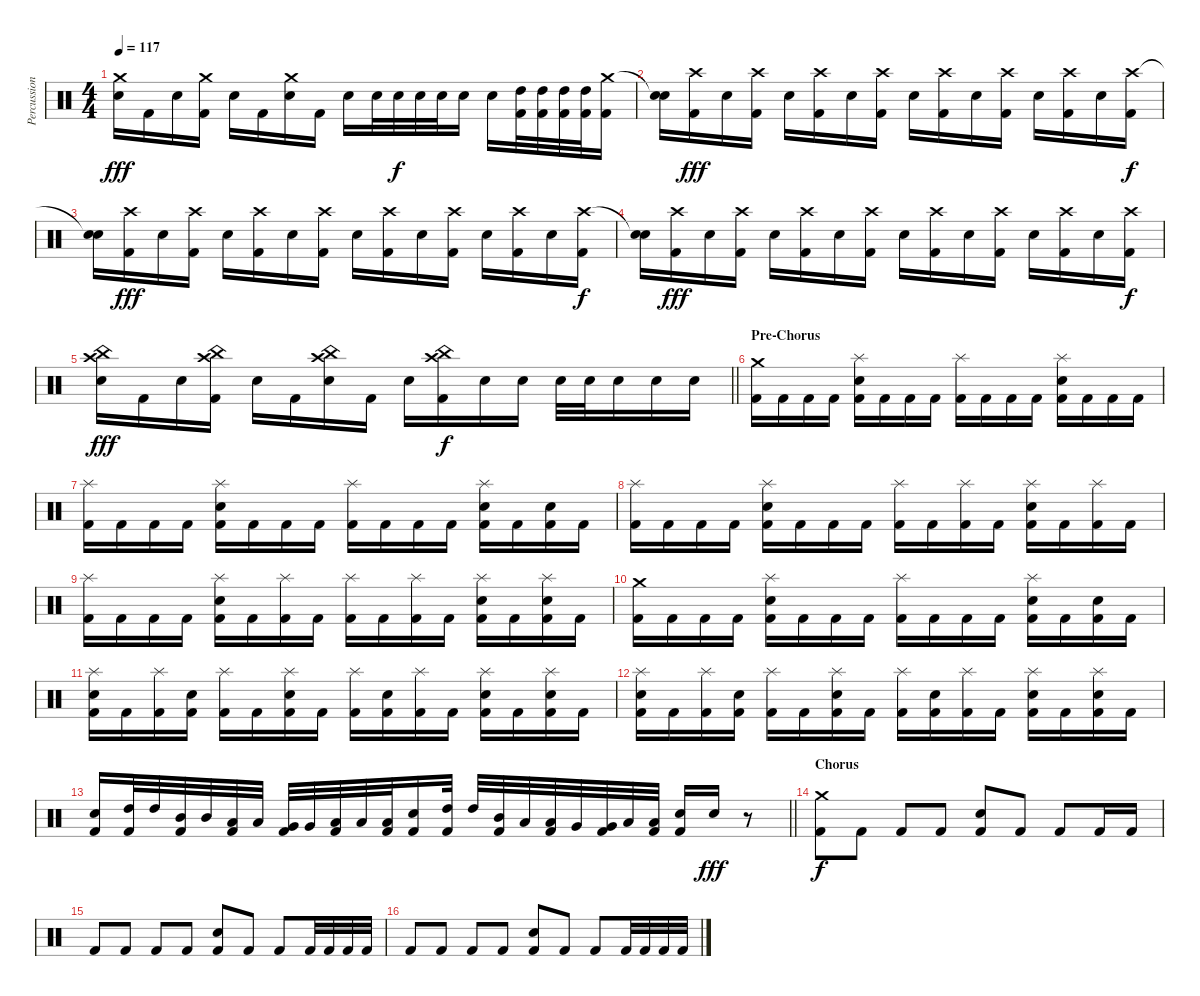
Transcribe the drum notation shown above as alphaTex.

\track ("Percussioni" "Percussion") {instrument percussion}
\staff {score}
\articulation defaults
\ts (4 4)
\tempo 117
\clef neutral
\ks c
("Crash medium (hit)" "Electric Snare (hit)").16{dy fff} "Kick (hit) 2".16 "Electric Snare (hit)".16 ("Crash medium (hit)" "Kick (hit) 2").16 "Electric Snare (hit)".16 "Kick (hit) 2".16 ("Crash medium (hit)" "Electric Snare (hit)").16 "Kick (hit) 2".16 "Electric Snare (hit)".16 "Electric Snare (hit)".32 "Electric Snare (hit)".32{dy f} "Electric Snare (hit)".32 "Electric Snare (hit)".32 "Electric Snare (hit)".16 "Electric Snare (hit)".16 ("High Tom (hit)" "Kick (hit) 2").32 ("High Tom (hit)" "Kick (hit) 2").32 ("High Tom (hit)" "Kick (hit) 2").32 ("High Tom (hit)" "Kick (hit) 2").32 ("Crash medium (hit)" "Kick (hit) 2").16 |
("Snare (hit)"{t} "Electric Snare (hit)").16 ("Crash high (hit)" "Kick (hit) 2").16{dy fff} "Electric Snare (hit)".16 ("Crash high (hit)" "Kick (hit) 2").16 "Electric Snare (hit)".16 ("Crash high (hit)" "Kick (hit) 2").16 "Electric Snare (hit)".16 ("Crash high (hit)" "Kick (hit) 2").16 "Electric Snare (hit)".16 ("Crash high (hit)" "Kick (hit) 2").16 "Electric Snare (hit)".16 ("Crash high (hit)" "Kick (hit) 2").16 "Electric Snare (hit)".16 ("Crash high (hit)" "Kick (hit) 2").16 "Electric Snare (hit)".16 ("Crash high (hit)" "Kick (hit) 2").16{dy f} |
("Snare (hit)"{t} "Electric Snare (hit)").16 ("Crash high (hit)" "Kick (hit) 2").16{dy fff} "Electric Snare (hit)".16 ("Crash high (hit)" "Kick (hit) 2").16 "Electric Snare (hit)".16 ("Crash high (hit)" "Kick (hit) 2").16 "Electric Snare (hit)".16 ("Crash high (hit)" "Kick (hit) 2").16 "Electric Snare (hit)".16 ("Crash high (hit)" "Kick (hit) 2").16 "Electric Snare (hit)".16 ("Crash high (hit)" "Kick (hit) 2").16 "Electric Snare (hit)".16 ("Crash high (hit)" "Kick (hit) 2").16 "Electric Snare (hit)".16 ("Crash high (hit)" "Kick (hit) 2").16{dy f} |
("Snare (hit)"{t} "Electric Snare (hit)").16 ("Crash high (hit)" "Kick (hit) 2").16{dy fff} "Electric Snare (hit)".16 ("Crash high (hit)" "Kick (hit) 2").16 "Electric Snare (hit)".16 ("Crash high (hit)" "Kick (hit) 2").16 "Electric Snare (hit)".16 ("Crash high (hit)" "Kick (hit) 2").16 "Electric Snare (hit)".16 ("Crash high (hit)" "Kick (hit) 2").16 "Electric Snare (hit)".16 ("Crash high (hit)" "Kick (hit) 2").16 "Electric Snare (hit)".16 ("Crash high (hit)" "Kick (hit) 2").16 "Electric Snare (hit)".16 ("Crash high (hit)" "Kick (hit) 2").16{dy f} |
\barLineRight lightlight
("Crash high (hit)" "China (hit)" "Electric Snare (hit)").16{dy fff} "Kick (hit) 2".16 "Electric Snare (hit)".16 ("Crash high (hit)" "China (hit)" "Kick (hit) 2").16 "Electric Snare (hit)".16 "Kick (hit) 2".16 ("Crash high (hit)" "China (hit)" "Electric Snare (hit)").16 "Kick (hit) 2".16 "Electric Snare (hit)".16 ("Crash high (hit)" "China (hit)" "Kick (hit) 2").16{dy f} "Electric Snare (hit)".16 "Electric Snare (hit)".16 "Electric Snare (hit)".32 "Electric Snare (hit)".32 "Electric Snare (hit)".16 "Electric Snare (hit)".16 "Electric Snare (hit)".16 |
\section ("" "Pre-Chorus")
("Crash medium (hit)" "Kick (hit) 2").16 "Kick (hit) 2".16 "Kick (hit) 2".16 "Kick (hit) 2".16 ("Splash (hit)" "Electric Snare (hit)" "Kick (hit) 2").16 "Kick (hit) 2".16 "Kick (hit) 2".16 "Kick (hit) 2".16 ("Splash (hit)" "Kick (hit) 2").16 "Kick (hit) 2".16 "Kick (hit) 2".16 "Kick (hit) 2".16 ("Splash (hit)" "Electric Snare (hit)" "Kick (hit) 2").16 "Kick (hit) 2".16 "Kick (hit) 2".16 "Kick (hit) 2".16 |
("Splash (hit)" "Kick (hit) 2").16 "Kick (hit) 2".16 "Kick (hit) 2".16 "Kick (hit) 2".16 ("Splash (hit)" "Electric Snare (hit)" "Kick (hit) 2").16 "Kick (hit) 2".16 "Kick (hit) 2".16 "Kick (hit) 2".16 ("Splash (hit)" "Kick (hit) 2").16 "Kick (hit) 2".16 "Kick (hit) 2".16 "Kick (hit) 2".16 ("Splash (hit)" "Electric Snare (hit)" "Kick (hit) 2").16 "Kick (hit) 2".16 ("Electric Snare (hit)" "Kick (hit) 2").16 "Kick (hit) 2".16 |
("Splash (hit)" "Kick (hit) 2").16 "Kick (hit) 2".16 "Kick (hit) 2".16 "Kick (hit) 2".16 ("Splash (hit)" "Electric Snare (hit)" "Kick (hit) 2").16 "Kick (hit) 2".16 "Kick (hit) 2".16 "Kick (hit) 2".16 ("Splash (hit)" "Kick (hit) 2").16 "Kick (hit) 2".16 ("Splash (hit)" "Kick (hit) 2").16 "Kick (hit) 2".16 ("Splash (hit)" "Electric Snare (hit)" "Kick (hit) 2").16 "Kick (hit) 2".16 ("Splash (hit)" "Kick (hit) 2").16 "Kick (hit) 2".16 |
("Splash (hit)" "Kick (hit) 2").16 "Kick (hit) 2".16 "Kick (hit) 2".16 "Kick (hit) 2".16 ("Splash (hit)" "Electric Snare (hit)" "Kick (hit) 2").16 "Kick (hit) 2".16 ("Splash (hit)" "Kick (hit) 2").16 "Kick (hit) 2".16 ("Splash (hit)" "Kick (hit) 2").16 "Kick (hit) 2".16 ("Splash (hit)" "Kick (hit) 2").16 "Kick (hit) 2".16 ("Splash (hit)" "Electric Snare (hit)" "Kick (hit) 2").16 "Kick (hit) 2".16 ("Splash (hit)" "Electric Snare (hit)" "Kick (hit) 2").16 "Kick (hit) 2".16 |
("Crash medium (hit)" "Kick (hit) 2").16 "Kick (hit) 2".16 "Kick (hit) 2".16 "Kick (hit) 2".16 ("Splash (hit)" "Electric Snare (hit)" "Kick (hit) 2").16 "Kick (hit) 2".16 "Kick (hit) 2".16 "Kick (hit) 2".16 ("Splash (hit)" "Kick (hit) 2").16 "Kick (hit) 2".16 "Kick (hit) 2".16 "Kick (hit) 2".16 ("Splash (hit)" "Electric Snare (hit)" "Kick (hit) 2").16 "Kick (hit) 2".16 ("Electric Snare (hit)" "Kick (hit) 2").16 "Kick (hit) 2".16 |
("Splash (hit)" "Electric Snare (hit)" "Kick (hit) 2").16 "Kick (hit) 2".16 ("Splash (hit)" "Kick (hit) 2").16 ("Electric Snare (hit)" "Kick (hit) 2").16 ("Splash (hit)" "Kick (hit) 2").16 "Kick (hit) 2".16 ("Splash (hit)" "Electric Snare (hit)" "Kick (hit) 2").16 "Kick (hit) 2".16 ("Splash (hit)" "Kick (hit) 2").16 ("Electric Snare (hit)" "Kick (hit) 2").16 ("Splash (hit)" "Kick (hit) 2").16 "Kick (hit) 2".16 ("Splash (hit)" "Electric Snare (hit)" "Kick (hit) 2").16 "Kick (hit) 2".16 ("Splash (hit)" "Electric Snare (hit)" "Kick (hit) 2").16 "Kick (hit) 2".16 |
("Splash (hit)" "Electric Snare (hit)" "Kick (hit) 2").16 "Kick (hit) 2".16 ("Splash (hit)" "Kick (hit) 2").16 ("Electric Snare (hit)" "Kick (hit) 2").16 ("Splash (hit)" "Kick (hit) 2").16 "Kick (hit) 2".16 ("Splash (hit)" "Electric Snare (hit)" "Kick (hit) 2").16 "Kick (hit) 2".16 ("Splash (hit)" "Kick (hit) 2").16 ("Electric Snare (hit)" "Kick (hit) 2").16 ("Splash (hit)" "Kick (hit) 2").16 "Kick (hit) 2".16 ("Splash (hit)" "Electric Snare (hit)" "Kick (hit) 2").16 "Kick (hit) 2".16 ("Splash (hit)" "Electric Snare (hit)" "Kick (hit) 2").16 "Kick (hit) 2".16 |
\barLineRight lightlight
("Electric Snare (hit)" "Kick (hit) 2").16 ("High Tom (hit)" "Kick (hit) 2").32 "High Tom (hit)".32 ("Mid Tom (hit)" "Kick (hit) 2").32 "Mid Tom (hit)".32 ("Low Tom (hit)" "Kick (hit) 2").32 "Low Tom (hit)".32 ("Very Low Tom (hit)" "Kick (hit) 2").32 "Very Low Tom (hit)".32 ("Low Floor Tom (hit)" "Kick (hit) 2").32 "Low Floor Tom (hit)".32 ("Low Floor Tom (hit)" "Kick (hit) 2").32 ("Electric Snare (hit)" "Kick (hit) 2").16 ("High Tom (hit)" "Kick (hit) 2").32 "High Tom (hit)".32 ("Mid Tom (hit)" "Kick (hit) 2").32 "Low Tom (hit)".32 ("Low Tom (hit)" "Kick (hit) 2").32 "Very Low Tom (hit)".32 ("Very Low Tom (hit)" "Kick (hit) 2").32 "Low Floor Tom (hit)".32 ("Low Floor Tom (hit)" "Kick (hit) 2").32 ("Electric Snare (hit)" "Kick (hit) 2").16 "Electric Snare (hit)".16{dy fff} r.8 |
\section ("" "Chorus")
("Crash medium (hit)" "Kick (hit) 2").8{dy f} "Kick (hit) 2".8 "Kick (hit) 2".8 "Kick (hit) 2".8 ("Electric Snare (hit)" "Kick (hit) 2").8 "Kick (hit) 2".8 "Kick (hit) 2".8 "Kick (hit) 2".16 "Kick (hit) 2".16 |
"Kick (hit) 2".8 "Kick (hit) 2".8 "Kick (hit) 2".8 "Kick (hit) 2".8 ("Electric Snare (hit)" "Kick (hit) 2").8 "Kick (hit) 2".8 "Kick (hit) 2".8 "Kick (hit) 2".32 "Kick (hit) 2".32 "Kick (hit) 2".32 "Kick (hit) 2".32 |
"Kick (hit) 2".8 "Kick (hit) 2".8 "Kick (hit) 2".8 "Kick (hit) 2".8 ("Electric Snare (hit)" "Kick (hit) 2").8 "Kick (hit) 2".8 "Kick (hit) 2".8 "Kick (hit) 2".32 "Kick (hit) 2".32 "Kick (hit) 2".32 "Kick (hit) 2".32
